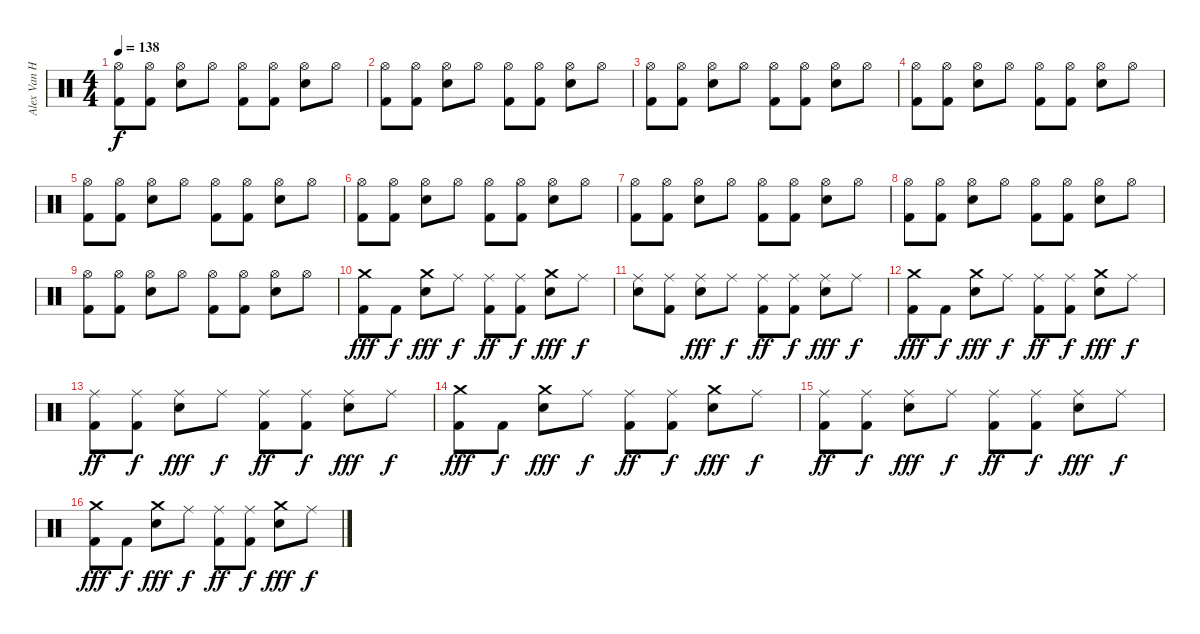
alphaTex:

\track ("Alex Van Halen " "Alex Van H") {instrument percussion}
\staff {score}
\articulation defaults
\ts (4 4)
\tempo 138
\clef neutral
\ks c
("Hi-Hat (open)" "Kick (hit) 2").8{dy f} ("Hi-Hat (open)" "Kick (hit) 2").8 ("Hi-Hat (open)" "Snare (hit) 2").8 "Hi-Hat (open)".8 ("Hi-Hat (open)" "Kick (hit) 2").8 ("Hi-Hat (open)" "Kick (hit) 2").8 ("Hi-Hat (open)" "Snare (hit) 2").8 "Hi-Hat (open)".8 |
("Hi-Hat (open)" "Kick (hit) 2").8 ("Hi-Hat (open)" "Kick (hit) 2").8 ("Hi-Hat (open)" "Snare (hit) 2").8 "Hi-Hat (open)".8 ("Hi-Hat (open)" "Kick (hit) 2").8 ("Hi-Hat (open)" "Kick (hit) 2").8 ("Hi-Hat (open)" "Snare (hit) 2").8 "Hi-Hat (open)".8 |
("Hi-Hat (open)" "Kick (hit) 2").8 ("Hi-Hat (open)" "Kick (hit) 2").8 ("Hi-Hat (open)" "Snare (hit) 2").8 "Hi-Hat (open)".8 ("Hi-Hat (open)" "Kick (hit) 2").8 ("Hi-Hat (open)" "Kick (hit) 2").8 ("Hi-Hat (open)" "Snare (hit) 2").8 "Hi-Hat (open)".8 |
("Hi-Hat (open)" "Kick (hit) 2").8 ("Hi-Hat (open)" "Kick (hit) 2").8 ("Hi-Hat (open)" "Snare (hit) 2").8 "Hi-Hat (open)".8 ("Hi-Hat (open)" "Kick (hit) 2").8 ("Hi-Hat (open)" "Kick (hit) 2").8 ("Hi-Hat (open)" "Snare (hit) 2").8 "Hi-Hat (open)".8 |
("Hi-Hat (open)" "Kick (hit) 2").8 ("Hi-Hat (open)" "Kick (hit) 2").8 ("Hi-Hat (open)" "Snare (hit) 2").8 "Hi-Hat (open)".8 ("Hi-Hat (open)" "Kick (hit) 2").8 ("Hi-Hat (open)" "Kick (hit) 2").8 ("Hi-Hat (open)" "Snare (hit) 2").8 "Hi-Hat (open)".8 |
("Hi-Hat (open)" "Kick (hit) 2").8 ("Hi-Hat (open)" "Kick (hit) 2").8 ("Hi-Hat (open)" "Snare (hit) 2").8 "Hi-Hat (open)".8 ("Hi-Hat (open)" "Kick (hit) 2").8 ("Hi-Hat (open)" "Kick (hit) 2").8 ("Hi-Hat (open)" "Snare (hit) 2").8 "Hi-Hat (open)".8 |
("Hi-Hat (open)" "Kick (hit) 2").8 ("Hi-Hat (open)" "Kick (hit) 2").8 ("Hi-Hat (open)" "Snare (hit) 2").8 "Hi-Hat (open)".8 ("Hi-Hat (open)" "Kick (hit) 2").8 ("Hi-Hat (open)" "Kick (hit) 2").8 ("Hi-Hat (open)" "Snare (hit) 2").8 "Hi-Hat (open)".8 |
("Hi-Hat (open)" "Kick (hit) 2").8 ("Hi-Hat (open)" "Kick (hit) 2").8 ("Hi-Hat (open)" "Snare (hit) 2").8 "Hi-Hat (open)".8 ("Hi-Hat (open)" "Kick (hit) 2").8 ("Hi-Hat (open)" "Kick (hit) 2").8 ("Hi-Hat (open)" "Snare (hit) 2").8 "Hi-Hat (open)".8 |
("Hi-Hat (open)" "Kick (hit) 2").8 ("Hi-Hat (open)" "Kick (hit) 2").8 ("Hi-Hat (open)" "Snare (hit) 2").8 "Hi-Hat (open)".8 ("Hi-Hat (open)" "Kick (hit) 2").8 ("Hi-Hat (open)" "Kick (hit) 2").8 ("Hi-Hat (open)" "Snare (hit) 2").8 "Hi-Hat (open)".8 |
("Kick (hit) 2" "Crash medium (hit)").8{dy fff} "Kick (hit) 2".8{dy f} ("Snare (hit) 2" "Crash medium (hit)").8{dy fff} "Ride (middle)".8{dy f} ("Kick (hit) 2" "Ride (middle)").8{dy ff} ("Kick (hit) 2" "Ride (middle)").8{dy f} ("Snare (hit) 2" "Crash medium (hit)").8{dy fff} "Ride (middle)".8{dy f} |
("Snare (hit) 2" "Ride (middle)").8 ("Kick (hit) 2" "Ride (middle)").8 ("Snare (hit) 2" "Ride (middle)").8{dy fff} "Ride (middle)".8{dy f} ("Kick (hit) 2" "Ride (middle)").8{dy ff} ("Kick (hit) 2" "Ride (middle)").8{dy f} ("Snare (hit) 2" "Ride (middle)").8{dy fff} "Ride (middle)".8{dy f} |
("Kick (hit) 2" "Crash medium (hit)").8{dy fff} "Kick (hit) 2".8{dy f} ("Snare (hit) 2" "Crash medium (hit)").8{dy fff} "Ride (middle)".8{dy f} ("Kick (hit) 2" "Ride (middle)").8{dy ff} ("Kick (hit) 2" "Ride (middle)").8{dy f} ("Snare (hit) 2" "Crash medium (hit)").8{dy fff} "Ride (middle)".8{dy f} |
("Kick (hit) 2" "Ride (middle)").8{dy ff} ("Kick (hit) 2" "Ride (middle)").8{dy f} ("Snare (hit) 2" "Ride (middle)").8{dy fff} "Ride (middle)".8{dy f} ("Kick (hit) 2" "Ride (middle)").8{dy ff} ("Kick (hit) 2" "Ride (middle)").8{dy f} ("Snare (hit) 2" "Ride (middle)").8{dy fff} "Ride (middle)".8{dy f} |
("Kick (hit) 2" "Crash medium (hit)").8{dy fff} "Kick (hit) 2".8{dy f} ("Snare (hit) 2" "Crash medium (hit)").8{dy fff} "Ride (middle)".8{dy f} ("Kick (hit) 2" "Ride (middle)").8{dy ff} ("Kick (hit) 2" "Ride (middle)").8{dy f} ("Snare (hit) 2" "Crash medium (hit)").8{dy fff} "Ride (middle)".8{dy f} |
("Kick (hit) 2" "Ride (middle)").8{dy ff} ("Kick (hit) 2" "Ride (middle)").8{dy f} ("Snare (hit) 2" "Ride (middle)").8{dy fff} "Ride (middle)".8{dy f} ("Kick (hit) 2" "Ride (middle)").8{dy ff} ("Kick (hit) 2" "Ride (middle)").8{dy f} ("Snare (hit) 2" "Ride (middle)").8{dy fff} "Ride (middle)".8{dy f} |
("Kick (hit) 2" "Crash medium (hit)").8{dy fff} "Kick (hit) 2".8{dy f} ("Snare (hit) 2" "Crash medium (hit)").8{dy fff} "Ride (middle)".8{dy f} ("Kick (hit) 2" "Ride (middle)").8{dy ff} ("Kick (hit) 2" "Ride (middle)").8{dy f} ("Snare (hit) 2" "Crash medium (hit)").8{dy fff} "Ride (middle)".8{dy f}
